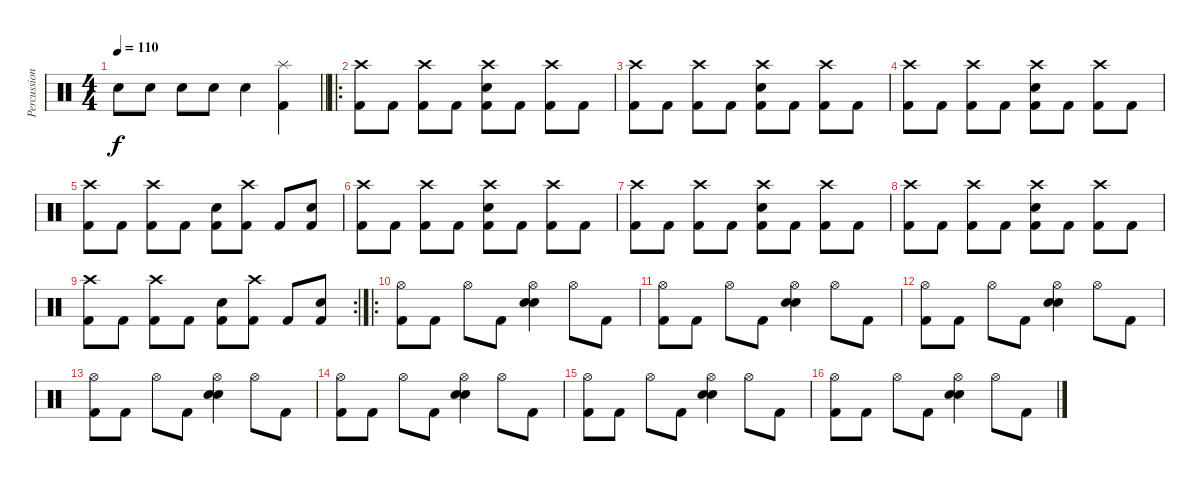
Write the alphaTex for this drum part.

\track ("Percussions" "Percussion") {instrument percussion}
\staff {score}
\articulation defaults
\ts (4 4)
\tempo 110
\clef neutral
\barLineRight lightlight
\ks c "Electric Snare (hit)".8{dy f} "Electric Snare (hit)".8 "Electric Snare (hit)".8 "Electric Snare (hit)".8 "Electric Snare (hit)".4
("Splash (hit)" "Kick (hit) 2").4 |
\ro
\section ("" "")
("Crash high (hit)" "Kick (hit) 2").8 "Kick (hit) 2".8 ("Crash high (hit)" "Kick (hit) 2").8 "Kick (hit) 2".8 ("Crash high (hit)" "Electric Snare (hit)" "Kick (hit) 2").8 "Kick (hit) 2".8 ("Crash high (hit)" "Kick (hit) 2").8 "Kick (hit) 2".8 |
("Crash high (hit)" "Kick (hit) 2").8 "Kick (hit) 2".8 ("Crash high (hit)" "Kick (hit) 2").8 "Kick (hit) 2".8 ("Crash high (hit)" "Electric Snare (hit)" "Kick (hit) 2").8 "Kick (hit) 2".8 ("Crash high (hit)" "Kick (hit) 2").8 "Kick (hit) 2".8 |
("Crash high (hit)" "Kick (hit) 2").8 "Kick (hit) 2".8 ("Crash high (hit)" "Kick (hit) 2").8 "Kick (hit) 2".8 ("Crash high (hit)" "Electric Snare (hit)" "Kick (hit) 2").8 "Kick (hit) 2".8 ("Crash high (hit)" "Kick (hit) 2").8 "Kick (hit) 2".8 |
("Crash high (hit)" "Kick (hit) 2").8 "Kick (hit) 2".8 ("Crash high (hit)" "Kick (hit) 2").8 "Kick (hit) 2".8 ("Electric Snare (hit)" "Kick (hit) 2").8 ("Crash high (hit)" "Kick (hit) 2").8 "Kick (hit) 2".8 ("Electric Snare (hit)" "Kick (hit) 2").8 |
("Crash high (hit)" "Kick (hit) 2").8 "Kick (hit) 2".8 ("Crash high (hit)" "Kick (hit) 2").8 "Kick (hit) 2".8 ("Crash high (hit)" "Electric Snare (hit)" "Kick (hit) 2").8 "Kick (hit) 2".8 ("Crash high (hit)" "Kick (hit) 2").8 "Kick (hit) 2".8 |
("Crash high (hit)" "Kick (hit) 2").8 "Kick (hit) 2".8 ("Crash high (hit)" "Kick (hit) 2").8 "Kick (hit) 2".8 ("Crash high (hit)" "Electric Snare (hit)" "Kick (hit) 2").8 "Kick (hit) 2".8 ("Crash high (hit)" "Kick (hit) 2").8 "Kick (hit) 2".8 |
("Crash high (hit)" "Kick (hit) 2").8 "Kick (hit) 2".8 ("Crash high (hit)" "Kick (hit) 2").8 "Kick (hit) 2".8 ("Crash high (hit)" "Electric Snare (hit)" "Kick (hit) 2").8 "Kick (hit) 2".8 ("Crash high (hit)" "Kick (hit) 2").8 "Kick (hit) 2".8 |
\rc 2
("Crash high (hit)" "Kick (hit) 2").8 "Kick (hit) 2".8 ("Crash high (hit)" "Kick (hit) 2").8 "Kick (hit) 2".8 ("Electric Snare (hit)" "Kick (hit) 2").8 ("Crash high (hit)" "Kick (hit) 2").8 "Kick (hit) 2".8 ("Electric Snare (hit)" "Kick (hit) 2").8 |
\ro
("Hi-Hat (open)" "Kick (hit) 2").8 "Kick (hit) 2".8 "Hi-Hat (open)".8 "Kick (hit) 2".8 ("Hand Clap (hit)" "Hi-Hat (open)" "Electric Snare (hit)").4 "Hi-Hat (open)".8 "Kick (hit) 2".8 |
("Hi-Hat (open)" "Kick (hit) 2").8 "Kick (hit) 2".8 "Hi-Hat (open)".8 "Kick (hit) 2".8 ("Hand Clap (hit)" "Hi-Hat (open)" "Electric Snare (hit)").4 "Hi-Hat (open)".8 "Kick (hit) 2".8 |
("Hi-Hat (open)" "Kick (hit) 2").8 "Kick (hit) 2".8 "Hi-Hat (open)".8 "Kick (hit) 2".8 ("Hand Clap (hit)" "Hi-Hat (open)" "Electric Snare (hit)").4 "Hi-Hat (open)".8 "Kick (hit) 2".8 |
("Hi-Hat (open)" "Kick (hit) 2").8 "Kick (hit) 2".8 "Hi-Hat (open)".8 "Kick (hit) 2".8 ("Hand Clap (hit)" "Hi-Hat (open)" "Electric Snare (hit)").4 "Hi-Hat (open)".8 "Kick (hit) 2".8 |
("Hi-Hat (open)" "Kick (hit) 2").8 "Kick (hit) 2".8 "Hi-Hat (open)".8 "Kick (hit) 2".8 ("Hand Clap (hit)" "Hi-Hat (open)" "Electric Snare (hit)").4 "Hi-Hat (open)".8 "Kick (hit) 2".8 |
("Hi-Hat (open)" "Kick (hit) 2").8 "Kick (hit) 2".8 "Hi-Hat (open)".8 "Kick (hit) 2".8 ("Hand Clap (hit)" "Hi-Hat (open)" "Electric Snare (hit)").4 "Hi-Hat (open)".8 "Kick (hit) 2".8 |
("Hi-Hat (open)" "Kick (hit) 2").8 "Kick (hit) 2".8 "Hi-Hat (open)".8 "Kick (hit) 2".8 ("Hand Clap (hit)" "Hi-Hat (open)" "Electric Snare (hit)").4 "Hi-Hat (open)".8 "Kick (hit) 2".8
